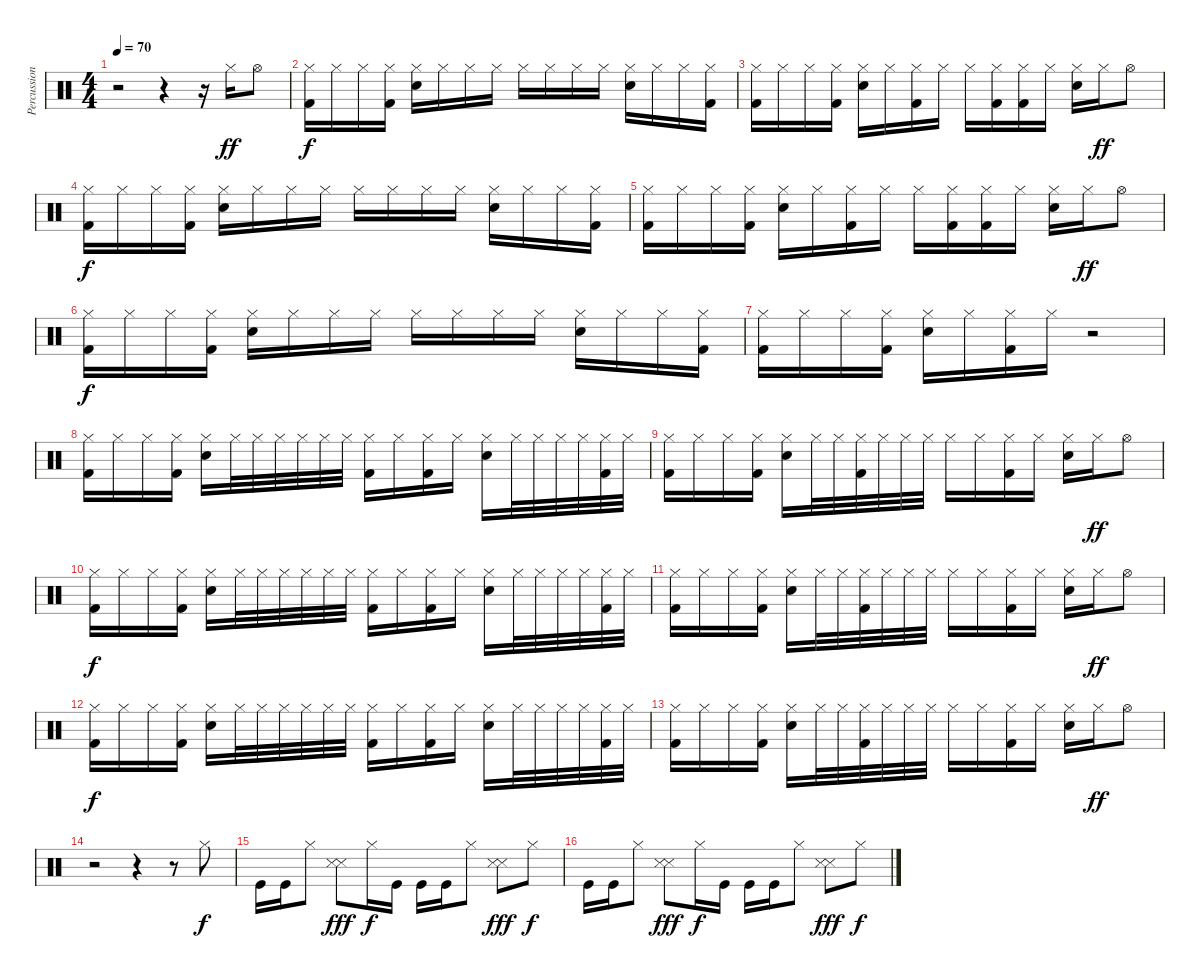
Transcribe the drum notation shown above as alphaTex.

\track ("Percussions" "Percussion") {instrument percussion}
\staff {score}
\articulation defaults
\ts (4 4)
\tempo 70
\clef neutral
\ks c
r.2{dy ff} r.4 r.16 "Hi-Hat (closed)".16{balance 8} "Hi-Hat (open)".8 |
\section ("" "")
("Kick (hit) 2" "Hi-Hat (closed)").16{dy f} "Hi-Hat (closed)".16 "Hi-Hat (closed)".16 ("Kick (hit) 2" "Hi-Hat (closed)").16 ("Electric Snare (hit)" "Hi-Hat (closed)").16 "Hi-Hat (closed)".16 "Hi-Hat (closed)".16 "Hi-Hat (closed)".16 "Hi-Hat (closed)".16 "Hi-Hat (closed)".16 "Hi-Hat (closed)".16 "Hi-Hat (closed)".16 ("Electric Snare (hit)" "Hi-Hat (closed)").16 "Hi-Hat (closed)".16 "Hi-Hat (closed)".16 ("Kick (hit) 2" "Hi-Hat (closed)").16 |
("Kick (hit) 2" "Hi-Hat (closed)").16 "Hi-Hat (closed)".16 "Hi-Hat (closed)".16 ("Kick (hit) 2" "Hi-Hat (closed)").16 ("Electric Snare (hit)" "Hi-Hat (closed)").16 "Hi-Hat (closed)".16 ("Kick (hit) 2" "Hi-Hat (closed)").16 "Hi-Hat (closed)".16 "Hi-Hat (closed)".16 ("Kick (hit) 2" "Hi-Hat (closed)").16 ("Kick (hit) 2" "Hi-Hat (closed)").16 "Hi-Hat (closed)".16 ("Electric Snare (hit)" "Hi-Hat (closed)").16 "Hi-Hat (closed)".16{dy ff} "Hi-Hat (open)".8 |
("Kick (hit) 2" "Hi-Hat (closed)").16{dy f} "Hi-Hat (closed)".16 "Hi-Hat (closed)".16 ("Kick (hit) 2" "Hi-Hat (closed)").16 ("Electric Snare (hit)" "Hi-Hat (closed)").16 "Hi-Hat (closed)".16 "Hi-Hat (closed)".16 "Hi-Hat (closed)".16 "Hi-Hat (closed)".16 "Hi-Hat (closed)".16 "Hi-Hat (closed)".16 "Hi-Hat (closed)".16 ("Electric Snare (hit)" "Hi-Hat (closed)").16 "Hi-Hat (closed)".16 "Hi-Hat (closed)".16 ("Kick (hit) 2" "Hi-Hat (closed)").16 |
("Kick (hit) 2" "Hi-Hat (closed)").16 "Hi-Hat (closed)".16 "Hi-Hat (closed)".16 ("Kick (hit) 2" "Hi-Hat (closed)").16 ("Electric Snare (hit)" "Hi-Hat (closed)").16 "Hi-Hat (closed)".16 ("Kick (hit) 2" "Hi-Hat (closed)").16 "Hi-Hat (closed)".16 "Hi-Hat (closed)".16 ("Kick (hit) 2" "Hi-Hat (closed)").16 ("Kick (hit) 2" "Hi-Hat (closed)").16 "Hi-Hat (closed)".16 ("Electric Snare (hit)" "Hi-Hat (closed)").16 "Hi-Hat (closed)".16{dy ff} "Hi-Hat (open)".8 |
\section ("" "")
("Kick (hit) 2" "Hi-Hat (closed)").16{dy f} "Hi-Hat (closed)".16 "Hi-Hat (closed)".16 ("Kick (hit) 2" "Hi-Hat (closed)").16 ("Electric Snare (hit)" "Hi-Hat (closed)").16 "Hi-Hat (closed)".16 "Hi-Hat (closed)".16 "Hi-Hat (closed)".16 "Hi-Hat (closed)".16 "Hi-Hat (closed)".16 "Hi-Hat (closed)".16 "Hi-Hat (closed)".16 ("Electric Snare (hit)" "Hi-Hat (closed)").16 "Hi-Hat (closed)".16 "Hi-Hat (closed)".16 ("Kick (hit) 2" "Hi-Hat (closed)").16 |
("Kick (hit) 2" "Hi-Hat (closed)").16 "Hi-Hat (closed)".16 "Hi-Hat (closed)".16 ("Kick (hit) 2" "Hi-Hat (closed)").16 ("Electric Snare (hit)" "Hi-Hat (closed)").16 "Hi-Hat (closed)".16 ("Kick (hit) 2" "Hi-Hat (closed)").16 "Hi-Hat (closed)".16 r.2 |
\section ("" "")
("Kick (hit) 2" "Hi-Hat (closed)").16{balance 8} "Hi-Hat (closed)".16 "Hi-Hat (closed)".16 ("Kick (hit) 2" "Hi-Hat (closed)").16 ("Electric Snare (hit)" "Hi-Hat (closed)").16 "Hi-Hat (closed)".32 "Hi-Hat (closed)".32 "Hi-Hat (closed)".32 "Hi-Hat (closed)".32 "Hi-Hat (closed)".32 "Hi-Hat (closed)".32 ("Kick (hit) 2" "Hi-Hat (closed)").16 "Hi-Hat (closed)".16 ("Kick (hit) 2" "Hi-Hat (closed)").16 "Hi-Hat (closed)".16 ("Electric Snare (hit)" "Hi-Hat (closed)").16 "Hi-Hat (closed)".32 "Hi-Hat (closed)".32 "Hi-Hat (closed)".32 "Hi-Hat (closed)".32 ("Kick (hit) 2" "Hi-Hat (closed)").32 "Hi-Hat (closed)".32 |
("Kick (hit) 2" "Hi-Hat (closed)").16 "Hi-Hat (closed)".16 "Hi-Hat (closed)".16 ("Kick (hit) 2" "Hi-Hat (closed)").16 ("Electric Snare (hit)" "Hi-Hat (closed)").16 "Hi-Hat (closed)".32 "Hi-Hat (closed)".32 ("Kick (hit) 2" "Hi-Hat (closed)").32 "Hi-Hat (closed)".32 "Hi-Hat (closed)".32 "Hi-Hat (closed)".32 "Hi-Hat (closed)".16 "Hi-Hat (closed)".16 ("Kick (hit) 2" "Hi-Hat (closed)").16 "Hi-Hat (closed)".16 ("Electric Snare (hit)" "Hi-Hat (closed)").16 "Hi-Hat (closed)".16{dy ff} "Hi-Hat (open)".8 |
("Kick (hit) 2" "Hi-Hat (closed)").16{dy f balance 8} "Hi-Hat (closed)".16 "Hi-Hat (closed)".16 ("Kick (hit) 2" "Hi-Hat (closed)").16 ("Electric Snare (hit)" "Hi-Hat (closed)").16 "Hi-Hat (closed)".32 "Hi-Hat (closed)".32 "Hi-Hat (closed)".32 "Hi-Hat (closed)".32 "Hi-Hat (closed)".32 "Hi-Hat (closed)".32 ("Kick (hit) 2" "Hi-Hat (closed)").16 "Hi-Hat (closed)".16 ("Kick (hit) 2" "Hi-Hat (closed)").16 "Hi-Hat (closed)".16 ("Electric Snare (hit)" "Hi-Hat (closed)").16 "Hi-Hat (closed)".32 "Hi-Hat (closed)".32 "Hi-Hat (closed)".32 "Hi-Hat (closed)".32 ("Kick (hit) 2" "Hi-Hat (closed)").32 "Hi-Hat (closed)".32 |
("Kick (hit) 2" "Hi-Hat (closed)").16 "Hi-Hat (closed)".16 "Hi-Hat (closed)".16 ("Kick (hit) 2" "Hi-Hat (closed)").16 ("Electric Snare (hit)" "Hi-Hat (closed)").16 "Hi-Hat (closed)".32 "Hi-Hat (closed)".32 ("Kick (hit) 2" "Hi-Hat (closed)").32 "Hi-Hat (closed)".32 "Hi-Hat (closed)".32 "Hi-Hat (closed)".32 "Hi-Hat (closed)".16 "Hi-Hat (closed)".16 ("Kick (hit) 2" "Hi-Hat (closed)").16 "Hi-Hat (closed)".16 ("Electric Snare (hit)" "Hi-Hat (closed)").16 "Hi-Hat (closed)".16{dy ff} "Hi-Hat (open)".8 |
("Kick (hit) 2" "Hi-Hat (closed)").16{dy f balance 8} "Hi-Hat (closed)".16 "Hi-Hat (closed)".16 ("Kick (hit) 2" "Hi-Hat (closed)").16 ("Electric Snare (hit)" "Hi-Hat (closed)").16 "Hi-Hat (closed)".32 "Hi-Hat (closed)".32 "Hi-Hat (closed)".32 "Hi-Hat (closed)".32 "Hi-Hat (closed)".32 "Hi-Hat (closed)".32 ("Kick (hit) 2" "Hi-Hat (closed)").16 "Hi-Hat (closed)".16 ("Kick (hit) 2" "Hi-Hat (closed)").16 "Hi-Hat (closed)".16 ("Electric Snare (hit)" "Hi-Hat (closed)").16 "Hi-Hat (closed)".32 "Hi-Hat (closed)".32 "Hi-Hat (closed)".32 "Hi-Hat (closed)".32 ("Kick (hit) 2" "Hi-Hat (closed)").32 "Hi-Hat (closed)".32 |
("Kick (hit) 2" "Hi-Hat (closed)").16 "Hi-Hat (closed)".16 "Hi-Hat (closed)".16 ("Kick (hit) 2" "Hi-Hat (closed)").16 ("Electric Snare (hit)" "Hi-Hat (closed)").16 "Hi-Hat (closed)".32 "Hi-Hat (closed)".32 ("Kick (hit) 2" "Hi-Hat (closed)").32 "Hi-Hat (closed)".32 "Hi-Hat (closed)".32 "Hi-Hat (closed)".32 "Hi-Hat (closed)".16 "Hi-Hat (closed)".16 ("Kick (hit) 2" "Hi-Hat (closed)").16 "Hi-Hat (closed)".16 ("Electric Snare (hit)" "Hi-Hat (closed)").16 "Hi-Hat (closed)".16{dy ff} "Hi-Hat (open)".8 |
\section ("" "")
r.2 r.4 r.8 "Hi-Hat (closed)".8{dy f} |
"Kick (hit)".16 "Kick (hit)".16 "Hi-Hat (closed)".8 ("Snare (side stick) 3" "Snare (side stick) 3").8{dy fff} "Hi-Hat (closed)".16{dy f} "Kick (hit)".16 "Kick (hit)".16 "Kick (hit)".16 "Hi-Hat (closed)".8 ("Snare (side stick) 3" "Snare (side stick) 3").8{dy fff} "Hi-Hat (closed)".8{dy f} |
"Kick (hit)".16 "Kick (hit)".16 "Hi-Hat (closed)".8 ("Snare (side stick) 3" "Snare (side stick) 3").8{dy fff} "Hi-Hat (closed)".16{dy f} "Kick (hit)".16 "Kick (hit)".16 "Kick (hit)".16 "Hi-Hat (closed)".8 ("Snare (side stick) 3" "Snare (side stick) 3").8{dy fff} "Hi-Hat (closed)".8{dy f}
